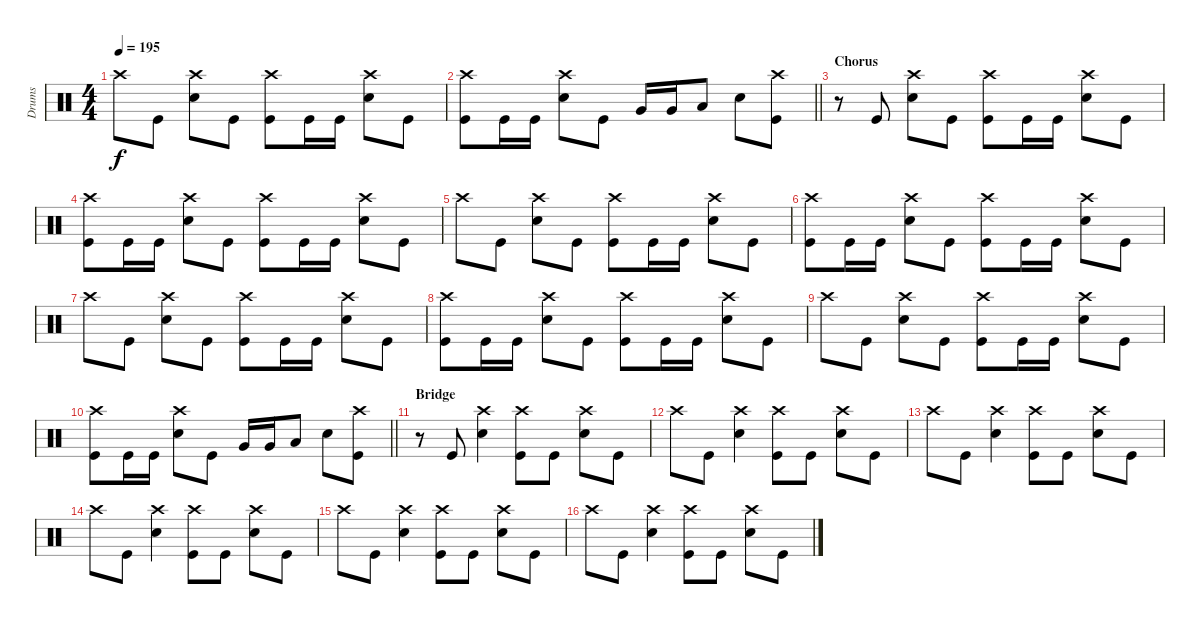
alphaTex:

\track ("Drums" "Drums") {instrument percussion}
\staff {score}
\articulation defaults
\ts (4 4)
\tempo 195
\clef neutral
\ks c "Crash high (hit)".8{dy f} "Kick (hit)".8
("Snare (hit) 2" "Crash high (hit)").8 "Kick (hit)".8 ("Kick (hit)" "Crash high (hit)").8 "Kick (hit)".16 "Kick (hit)".16 ("Snare (hit) 2" "Crash high (hit)").8 "Kick (hit)".8 |
\barLineRight lightlight
("Kick (hit)" "Crash high (hit)").8 "Kick (hit)".16 "Kick (hit)".16 ("Snare (hit) 2" "Crash high (hit)").8 "Kick (hit)".8 "Very Low Tom (hit)".16 "Very Low Tom (hit)".16 "Low Floor Tom (hit)".8 "Snare (hit) 2".8 ("Kick (hit)" "Crash high (hit)").8 |
\section ("" "Chorus")
r.8 "Kick (hit)".8 ("Snare (hit) 2" "Crash high (hit)").8 "Kick (hit)".8 ("Kick (hit)" "Crash high (hit)").8 "Kick (hit)".16 "Kick (hit)".16 ("Snare (hit) 2" "Crash high (hit)").8 "Kick (hit)".8 |
("Kick (hit)" "Crash high (hit)").8 "Kick (hit)".16 "Kick (hit)".16 ("Snare (hit) 2" "Crash high (hit)").8 "Kick (hit)".8 ("Kick (hit)" "Crash high (hit)").8 "Kick (hit)".16 "Kick (hit)".16 ("Snare (hit) 2" "Crash high (hit)").8 "Kick (hit)".8 |
"Crash high (hit)".8 "Kick (hit)".8 ("Snare (hit) 2" "Crash high (hit)").8 "Kick (hit)".8 ("Kick (hit)" "Crash high (hit)").8 "Kick (hit)".16 "Kick (hit)".16 ("Snare (hit) 2" "Crash high (hit)").8 "Kick (hit)".8 |
("Kick (hit)" "Crash high (hit)").8 "Kick (hit)".16 "Kick (hit)".16 ("Snare (hit) 2" "Crash high (hit)").8 "Kick (hit)".8 ("Kick (hit)" "Crash high (hit)").8 "Kick (hit)".16 "Kick (hit)".16 ("Snare (hit) 2" "Crash high (hit)").8 "Kick (hit)".8 |
"Crash high (hit)".8 "Kick (hit)".8 ("Snare (hit) 2" "Crash high (hit)").8 "Kick (hit)".8 ("Kick (hit)" "Crash high (hit)").8 "Kick (hit)".16 "Kick (hit)".16 ("Snare (hit) 2" "Crash high (hit)").8 "Kick (hit)".8 |
("Kick (hit)" "Crash high (hit)").8 "Kick (hit)".16 "Kick (hit)".16 ("Snare (hit) 2" "Crash high (hit)").8 "Kick (hit)".8 ("Kick (hit)" "Crash high (hit)").8 "Kick (hit)".16 "Kick (hit)".16 ("Snare (hit) 2" "Crash high (hit)").8 "Kick (hit)".8 |
"Crash high (hit)".8 "Kick (hit)".8 ("Snare (hit) 2" "Crash high (hit)").8 "Kick (hit)".8 ("Kick (hit)" "Crash high (hit)").8 "Kick (hit)".16 "Kick (hit)".16 ("Snare (hit) 2" "Crash high (hit)").8 "Kick (hit)".8 |
\barLineRight lightlight
("Kick (hit)" "Crash high (hit)").8 "Kick (hit)".16 "Kick (hit)".16 ("Snare (hit) 2" "Crash high (hit)").8 "Kick (hit)".8 "Very Low Tom (hit)".16 "Very Low Tom (hit)".16 "Low Floor Tom (hit)".8 "Snare (hit) 2".8 ("Kick (hit)" "Crash high (hit)").8 |
\section ("" "Bridge")
r.8 "Kick (hit)".8 ("Snare (hit) 2" "Crash high (hit)").4 ("Kick (hit)" "Crash high (hit)").8 "Kick (hit)".8 ("Snare (hit) 2" "Crash high (hit)").8 "Kick (hit)".8 |
"Crash high (hit)".8 "Kick (hit)".8 ("Snare (hit) 2" "Crash high (hit)").4 ("Kick (hit)" "Crash high (hit)").8 "Kick (hit)".8 ("Snare (hit) 2" "Crash high (hit)").8 "Kick (hit)".8 |
"Crash high (hit)".8 "Kick (hit)".8 ("Snare (hit) 2" "Crash high (hit)").4 ("Kick (hit)" "Crash high (hit)").8 "Kick (hit)".8 ("Snare (hit) 2" "Crash high (hit)").8 "Kick (hit)".8 |
"Crash high (hit)".8 "Kick (hit)".8 ("Snare (hit) 2" "Crash high (hit)").4 ("Kick (hit)" "Crash high (hit)").8 "Kick (hit)".8 ("Snare (hit) 2" "Crash high (hit)").8 "Kick (hit)".8 |
"Crash high (hit)".8 "Kick (hit)".8 ("Snare (hit) 2" "Crash high (hit)").4 ("Kick (hit)" "Crash high (hit)").8 "Kick (hit)".8 ("Snare (hit) 2" "Crash high (hit)").8 "Kick (hit)".8 |
"Crash high (hit)".8 "Kick (hit)".8 ("Snare (hit) 2" "Crash high (hit)").4 ("Kick (hit)" "Crash high (hit)").8 "Kick (hit)".8 ("Snare (hit) 2" "Crash high (hit)").8 "Kick (hit)".8
